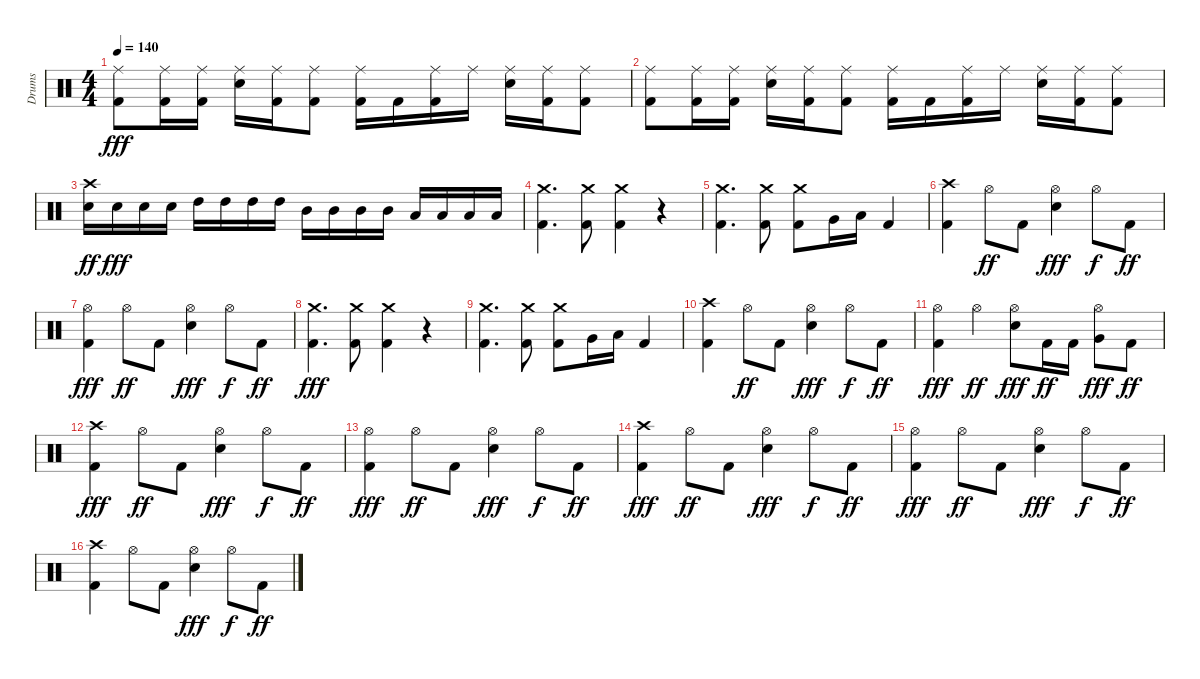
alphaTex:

\track ("Drums" "Drums") {instrument percussion}
\staff {score}
\articulation defaults
\ts (4 4)
\tempo 140
\clef neutral
\ks c
("Ride (middle)" "Kick (hit) 2").8{dy fff} ("Ride (middle)" "Kick (hit) 2").16 ("Ride (middle)" "Kick (hit) 2").16 ("Ride (middle)" "Electric Snare (hit)").16 ("Ride (middle)" "Kick (hit) 2").16 ("Ride (middle)" "Kick (hit) 2").8 ("Ride (middle)" "Kick (hit) 2").16 "Kick (hit) 2".16 ("Ride (middle)" "Kick (hit) 2").16 "Ride (middle)".16 ("Ride (middle)" "Electric Snare (hit)").16 ("Ride (middle)" "Kick (hit) 2").16 ("Ride (middle)" "Kick (hit) 2").8 |
("Ride (middle)" "Kick (hit) 2").8 ("Ride (middle)" "Kick (hit) 2").16 ("Ride (middle)" "Kick (hit) 2").16 ("Ride (middle)" "Electric Snare (hit)").16 ("Ride (middle)" "Kick (hit) 2").16 ("Ride (middle)" "Kick (hit) 2").8 ("Ride (middle)" "Kick (hit) 2").16 "Kick (hit) 2".16 ("Ride (middle)" "Kick (hit) 2").16 "Ride (middle)".16 ("Ride (middle)" "Electric Snare (hit)").16 ("Ride (middle)" "Kick (hit) 2").16 ("Ride (middle)" "Kick (hit) 2").8 |
("Electric Snare (hit)" "Crash high (hit)").16{dy ff} "Electric Snare (hit)".16{dy fff} "Electric Snare (hit)".16 "Electric Snare (hit)".16 "High Tom (hit)".16 "High Tom (hit)".16 "High Tom (hit)".16 "High Tom (hit)".16 "Mid Tom (hit)".16 "Mid Tom (hit)".16 "Mid Tom (hit)".16 "Mid Tom (hit)".16 "Low Tom (hit)".16 "Low Tom (hit)".16 "Low Tom (hit)".16 "Low Tom (hit)".16 |
("Kick (hit) 2" "Crash medium (hit)").4{d} ("Kick (hit) 2" "Crash medium (hit)").8 ("Kick (hit) 2" "Crash medium (hit)").4 r.4 |
("Kick (hit) 2" "Crash medium (hit)").4{d} ("Kick (hit) 2" "Crash medium (hit)").8 ("Kick (hit) 2" "Crash medium (hit)").8 "Very Low Tom (hit)".16 "Low Floor Tom (hit)".16 "Kick (hit) 2".4 |
("Kick (hit) 2" "Crash high (hit)").4 "Hi-Hat (open)".8{dy ff} "Kick (hit) 2".8 ("Hi-Hat (open)" "Electric Snare (hit)").4{dy fff} "Hi-Hat (open)".8{dy f} "Kick (hit) 2".8{dy ff} |
("Hi-Hat (open)" "Kick (hit) 2").4{dy fff} "Hi-Hat (open)".8{dy ff} "Kick (hit) 2".8 ("Hi-Hat (open)" "Electric Snare (hit)").4{dy fff} "Hi-Hat (open)".8{dy f} "Kick (hit) 2".8{dy ff} |
("Kick (hit) 2" "Crash medium (hit)").4{d dy fff} ("Kick (hit) 2" "Crash medium (hit)").8 ("Kick (hit) 2" "Crash medium (hit)").4 r.4 |
("Kick (hit) 2" "Crash medium (hit)").4{d} ("Kick (hit) 2" "Crash medium (hit)").8 ("Kick (hit) 2" "Crash medium (hit)").8 "Very Low Tom (hit)".16 "Low Floor Tom (hit)".16 "Kick (hit) 2".4 |
("Kick (hit) 2" "Crash high (hit)").4 "Hi-Hat (open)".8{dy ff} "Kick (hit) 2".8 ("Hi-Hat (open)" "Electric Snare (hit)").4{dy fff} "Hi-Hat (open)".8{dy f} "Kick (hit) 2".8{dy ff} |
("Hi-Hat (open)" "Kick (hit) 2").4{dy fff} "Hi-Hat (open)".4{dy ff} ("Hi-Hat (open)" "Electric Snare (hit)").8{dy fff} "Kick (hit) 2".16{dy ff} "Kick (hit) 2".16 ("Hi-Hat (open)" "Very Low Tom (hit)").8{dy fff} "Kick (hit) 2".8{dy ff} |
("Kick (hit) 2" "Crash high (hit)").4{dy fff} "Hi-Hat (open)".8{dy ff} "Kick (hit) 2".8 ("Hi-Hat (open)" "Electric Snare (hit)").4{dy fff} "Hi-Hat (open)".8{dy f} "Kick (hit) 2".8{dy ff} |
("Hi-Hat (open)" "Kick (hit) 2").4{dy fff} "Hi-Hat (open)".8{dy ff} "Kick (hit) 2".8 ("Hi-Hat (open)" "Electric Snare (hit)").4{dy fff} "Hi-Hat (open)".8{dy f} "Kick (hit) 2".8{dy ff} |
("Kick (hit) 2" "Crash high (hit)").4{dy fff} "Hi-Hat (open)".8{dy ff} "Kick (hit) 2".8 ("Hi-Hat (open)" "Electric Snare (hit)").4{dy fff} "Hi-Hat (open)".8{dy f} "Kick (hit) 2".8{dy ff} |
("Hi-Hat (open)" "Kick (hit) 2").4{dy fff} "Hi-Hat (open)".8{dy ff} "Kick (hit) 2".8 ("Hi-Hat (open)" "Electric Snare (hit)").4{dy fff} "Hi-Hat (open)".8{dy f} "Kick (hit) 2".8{dy ff} |
("Kick (hit) 2" "Crash high (hit)").4 "Hi-Hat (open)".8 "Kick (hit) 2".8 ("Hi-Hat (open)" "Electric Snare (hit)").4{dy fff} "Hi-Hat (open)".8{dy f} "Kick (hit) 2".8{dy ff}
